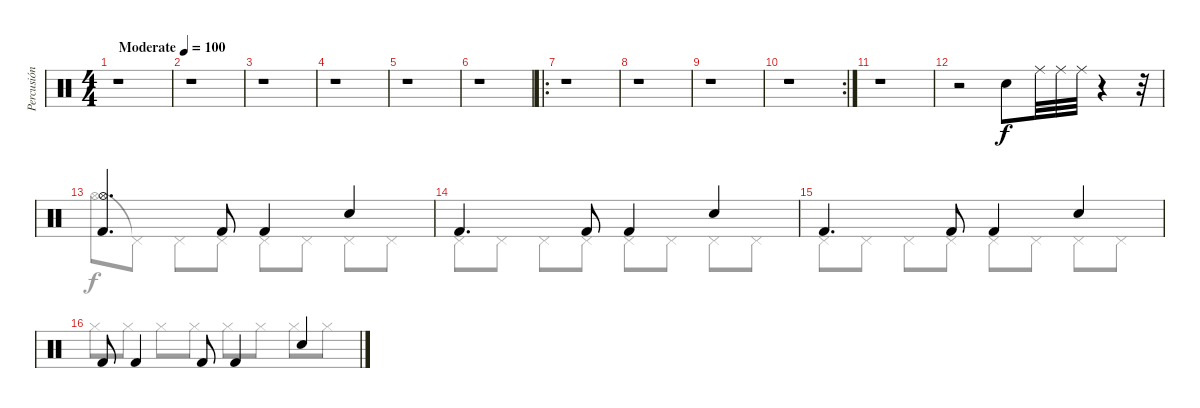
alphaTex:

\track ("Percusión" "Percusión") {instrument percussion}
\staff {score}
\articulation defaults
\voice
\ts (4 4)
\tempo (100 "Moderate")
\clef neutral
\ks c
r.1{dy f} |
r.1 |
r.1 |
r.1 |
r.1 |
r.1 |
\ro
r.1 |
r.1 |
r.1 |
\rc 2
r.1 |
r.1 |
r.2 "Snare (hit)".8 "Ride (middle)".32 "Ride (middle)".32 "Ride (middle)".32 r.4 r.32 |
("Hi-Hat (open)" "Kick (hit) 2").4{d} "Kick (hit) 2".8 "Kick (hit) 2".4 "Electric Snare (hit)".4 |
"Kick (hit) 2".4{d} "Kick (hit) 2".8 "Kick (hit) 2".4 "Electric Snare (hit)".4 |
"Kick (hit) 2".4{d} "Kick (hit) 2".8 "Kick (hit) 2".4 "Electric Snare (hit)".4 |
"Kick (hit) 2".8 "Kick (hit) 2".4 "Kick (hit) 2".8 "Kick (hit) 2".4 "Electric Snare (hit)".4
\voice
\clef neutral
\ottava regular
\simile none
\ks c
|
|
|
|
|
|
|
|
|
|
|
|
"Hi-Hat (open)".8 "Pedal Hi-Hat (hit)"{t}.8 "Pedal Hi-Hat (hit)".8 "Pedal Hi-Hat (hit)".8 "Pedal Hi-Hat (hit)".8 "Pedal Hi-Hat (hit)".8 "Pedal Hi-Hat (hit)".8 "Pedal Hi-Hat (hit)".8 |
"Pedal Hi-Hat (hit)".8 "Pedal Hi-Hat (hit)".8 "Pedal Hi-Hat (hit)".8 "Pedal Hi-Hat (hit)".8 "Pedal Hi-Hat (hit)".8 "Pedal Hi-Hat (hit)".8 "Pedal Hi-Hat (hit)".8 "Pedal Hi-Hat (hit)".8 |
"Pedal Hi-Hat (hit)".8 "Pedal Hi-Hat (hit)".8 "Pedal Hi-Hat (hit)".8 "Pedal Hi-Hat (hit)".8 "Pedal Hi-Hat (hit)".8 "Pedal Hi-Hat (hit)".8 "Pedal Hi-Hat (hit)".8 "Pedal Hi-Hat (hit)".8 |
"Hi-Hat (closed)".8 "Hi-Hat (closed)".8 "Hi-Hat (closed)".8 "Hi-Hat (closed)".8 "Hi-Hat (closed)".8 "Hi-Hat (closed)".8 "Hi-Hat (closed)".8 "Hi-Hat (closed)".8
